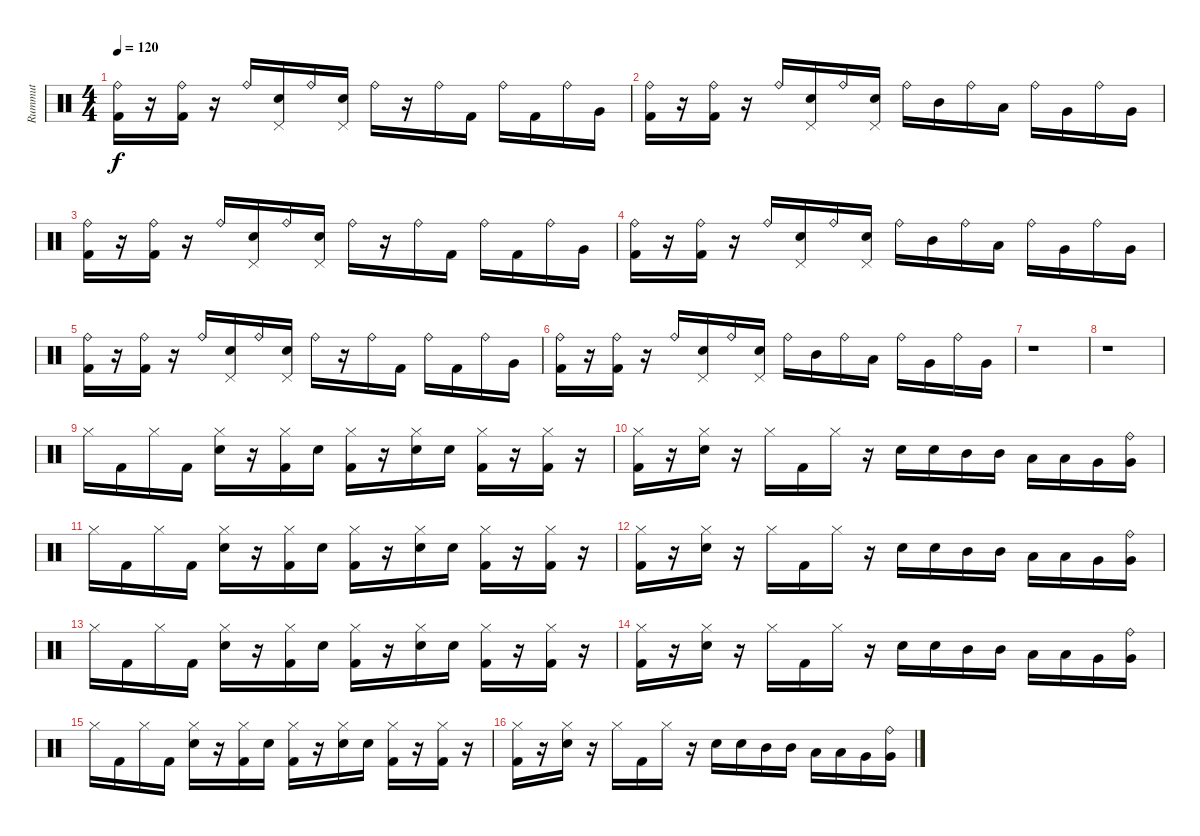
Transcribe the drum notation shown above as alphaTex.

\track ("Rummut" "Rummut") {instrument percussion}
\staff {score}
\articulation defaults
\ts (4 4)
\tempo 120
\clef neutral
\ks c
("Ride (bell)" "Kick (hit) 2").16{dy f} r.16 ("Ride (bell)" "Kick (hit) 2").16 r.16 "Ride (bell)".16 ("Snare (hit) 2" "Pedal Hi-Hat (hit)").16 "Ride (bell)".16 ("Snare (hit) 2" "Pedal Hi-Hat (hit)").16 "Ride (bell)".16 r.16 "Ride (bell)".16 "Kick (hit) 2".16 "Ride (bell)".16 "Kick (hit) 2".16 "Ride (bell)".16 "Very Low Tom (hit)".16 |
("Ride (bell)" "Kick (hit) 2").16 r.16 ("Ride (bell)" "Kick (hit) 2").16 r.16 "Ride (bell)".16 ("Snare (hit) 2" "Pedal Hi-Hat (hit)").16 "Ride (bell)".16 ("Snare (hit) 2" "Pedal Hi-Hat (hit)").16 "Ride (bell)".16 "Mid Tom (hit)".16 "Ride (bell)".16 "Low Tom (hit)".16 "Ride (bell)".16 "Very Low Tom (hit)".16 "Ride (bell)".16 "Very Low Tom (hit)".16 |
("Ride (bell)" "Kick (hit) 2").16 r.16 ("Ride (bell)" "Kick (hit) 2").16 r.16 "Ride (bell)".16 ("Snare (hit) 2" "Pedal Hi-Hat (hit)").16 "Ride (bell)".16 ("Snare (hit) 2" "Pedal Hi-Hat (hit)").16 "Ride (bell)".16 r.16 "Ride (bell)".16 "Kick (hit) 2".16 "Ride (bell)".16 "Kick (hit) 2".16 "Ride (bell)".16 "Very Low Tom (hit)".16 |
("Ride (bell)" "Kick (hit) 2").16 r.16 ("Ride (bell)" "Kick (hit) 2").16 r.16 "Ride (bell)".16 ("Snare (hit) 2" "Pedal Hi-Hat (hit)").16 "Ride (bell)".16 ("Snare (hit) 2" "Pedal Hi-Hat (hit)").16 "Ride (bell)".16 "Mid Tom (hit)".16 "Ride (bell)".16 "Low Tom (hit)".16 "Ride (bell)".16 "Very Low Tom (hit)".16 "Ride (bell)".16 "Very Low Tom (hit)".16 |
("Ride (bell)" "Kick (hit) 2").16 r.16 ("Ride (bell)" "Kick (hit) 2").16 r.16 "Ride (bell)".16 ("Snare (hit) 2" "Pedal Hi-Hat (hit)").16 "Ride (bell)".16 ("Snare (hit) 2" "Pedal Hi-Hat (hit)").16 "Ride (bell)".16 r.16 "Ride (bell)".16 "Kick (hit) 2".16 "Ride (bell)".16 "Kick (hit) 2".16 "Ride (bell)".16 "Very Low Tom (hit)".16 |
("Ride (bell)" "Kick (hit) 2").16 r.16 ("Ride (bell)" "Kick (hit) 2").16 r.16 "Ride (bell)".16 ("Snare (hit) 2" "Pedal Hi-Hat (hit)").16 "Ride (bell)".16 ("Snare (hit) 2" "Pedal Hi-Hat (hit)").16 "Ride (bell)".16 "Mid Tom (hit)".16 "Ride (bell)".16 "Low Tom (hit)".16 "Ride (bell)".16 "Very Low Tom (hit)".16 "Ride (bell)".16 "Very Low Tom (hit)".16 |
r.1 |
r.1 |
"Hi-Hat (closed)".16 "Kick (hit) 2".16 "Hi-Hat (closed)".16 "Kick (hit) 2".16 ("Hi-Hat (closed)" "Snare (hit) 2").16 r.16 ("Hi-Hat (closed)" "Kick (hit) 2").16 "Snare (hit) 2".16 ("Hi-Hat (closed)" "Kick (hit) 2").16 r.16 ("Hi-Hat (closed)" "Snare (hit) 2").16 "Snare (hit) 2".16 ("Hi-Hat (closed)" "Kick (hit) 2").16 r.16 ("Hi-Hat (closed)" "Kick (hit) 2").16 r.16 |
("Hi-Hat (closed)" "Kick (hit) 2").16 r.16 ("Hi-Hat (closed)" "Snare (hit) 2").16 r.16 "Hi-Hat (closed)".16 "Kick (hit) 2".16 "Hi-Hat (closed)".16 r.16 "Snare (hit) 2".16 "Snare (hit) 2".16 "Mid Tom (hit)".16 "Mid Tom (hit)".16 "Low Tom (hit)".16 "Low Tom (hit)".16 "Very Low Tom (hit)".16 ("Very Low Tom (hit)" "Ride (bell)").16 |
"Hi-Hat (closed)".16 "Kick (hit) 2".16 "Hi-Hat (closed)".16 "Kick (hit) 2".16 ("Hi-Hat (closed)" "Snare (hit) 2").16 r.16 ("Hi-Hat (closed)" "Kick (hit) 2").16 "Snare (hit) 2".16 ("Hi-Hat (closed)" "Kick (hit) 2").16 r.16 ("Hi-Hat (closed)" "Snare (hit) 2").16 "Snare (hit) 2".16 ("Hi-Hat (closed)" "Kick (hit) 2").16 r.16 ("Hi-Hat (closed)" "Kick (hit) 2").16 r.16 |
("Hi-Hat (closed)" "Kick (hit) 2").16 r.16 ("Hi-Hat (closed)" "Snare (hit) 2").16 r.16 "Hi-Hat (closed)".16 "Kick (hit) 2".16 "Hi-Hat (closed)".16 r.16 "Snare (hit) 2".16 "Snare (hit) 2".16 "Mid Tom (hit)".16 "Mid Tom (hit)".16 "Low Tom (hit)".16 "Low Tom (hit)".16 "Very Low Tom (hit)".16 ("Very Low Tom (hit)" "Ride (bell)").16 |
"Hi-Hat (closed)".16 "Kick (hit) 2".16 "Hi-Hat (closed)".16 "Kick (hit) 2".16 ("Hi-Hat (closed)" "Snare (hit) 2").16 r.16 ("Hi-Hat (closed)" "Kick (hit) 2").16 "Snare (hit) 2".16 ("Hi-Hat (closed)" "Kick (hit) 2").16 r.16 ("Hi-Hat (closed)" "Snare (hit) 2").16 "Snare (hit) 2".16 ("Hi-Hat (closed)" "Kick (hit) 2").16 r.16 ("Hi-Hat (closed)" "Kick (hit) 2").16 r.16 |
("Hi-Hat (closed)" "Kick (hit) 2").16 r.16 ("Hi-Hat (closed)" "Snare (hit) 2").16 r.16 "Hi-Hat (closed)".16 "Kick (hit) 2".16 "Hi-Hat (closed)".16 r.16 "Snare (hit) 2".16 "Snare (hit) 2".16 "Mid Tom (hit)".16 "Mid Tom (hit)".16 "Low Tom (hit)".16 "Low Tom (hit)".16 "Very Low Tom (hit)".16 ("Very Low Tom (hit)" "Ride (bell)").16 |
"Hi-Hat (closed)".16 "Kick (hit) 2".16 "Hi-Hat (closed)".16 "Kick (hit) 2".16 ("Hi-Hat (closed)" "Snare (hit) 2").16 r.16 ("Hi-Hat (closed)" "Kick (hit) 2").16 "Snare (hit) 2".16 ("Hi-Hat (closed)" "Kick (hit) 2").16 r.16 ("Hi-Hat (closed)" "Snare (hit) 2").16 "Snare (hit) 2".16 ("Hi-Hat (closed)" "Kick (hit) 2").16 r.16 ("Hi-Hat (closed)" "Kick (hit) 2").16 r.16 |
("Hi-Hat (closed)" "Kick (hit) 2").16 r.16 ("Hi-Hat (closed)" "Snare (hit) 2").16 r.16 "Hi-Hat (closed)".16 "Kick (hit) 2".16 "Hi-Hat (closed)".16 r.16 "Snare (hit) 2".16 "Snare (hit) 2".16 "Mid Tom (hit)".16 "Mid Tom (hit)".16 "Low Tom (hit)".16 "Low Tom (hit)".16 "Very Low Tom (hit)".16 ("Very Low Tom (hit)" "Ride (bell)").16
